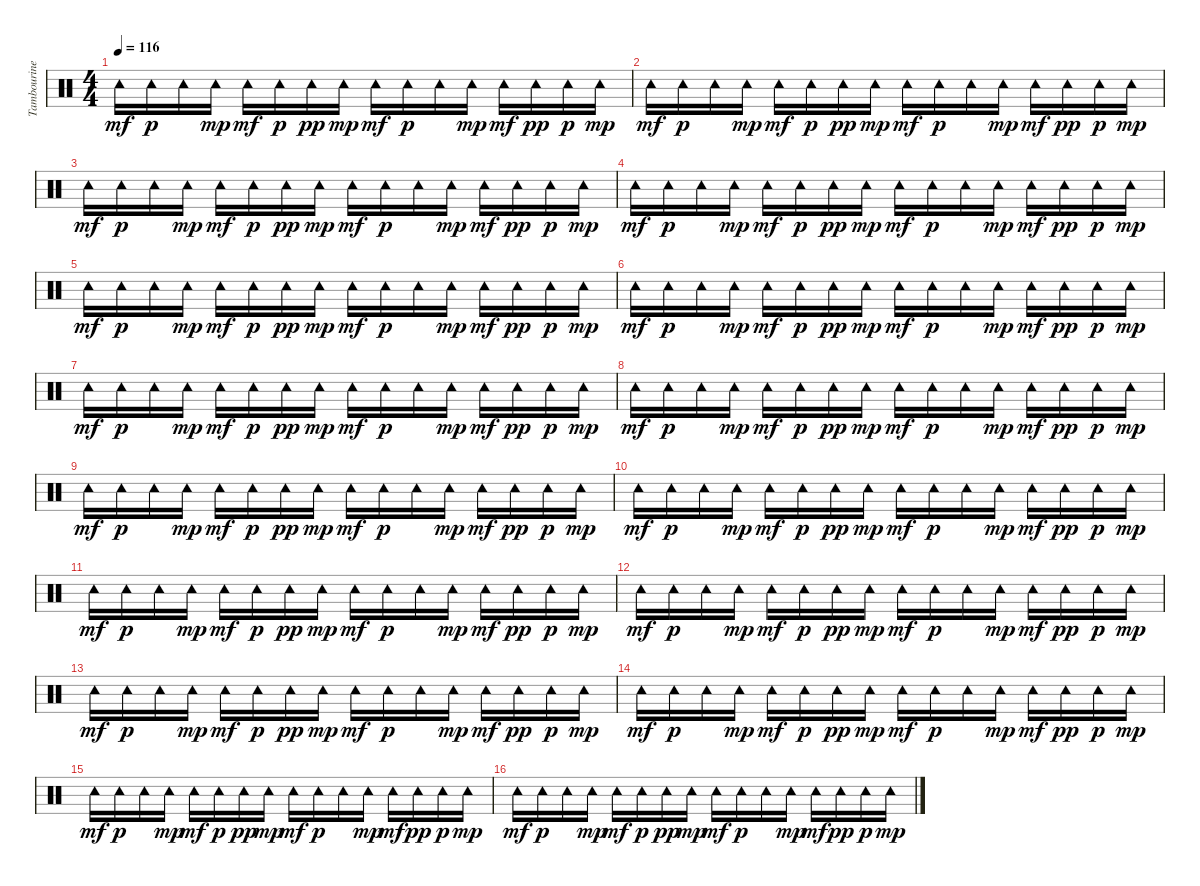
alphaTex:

\track ("Tambourine" "Tambourine") {instrument percussion}
\staff {score}
\articulation defaults
\ts (4 4)
\tempo 116
\clef neutral
\ks c "Tambourine (hit)".16{dy mf} "Tambourine (hit)".16{dy p} "Tambourine (hit)".16 "Tambourine (hit)".16{dy mp} "Tambourine (hit)".16{dy mf} "Tambourine (hit)".16{dy p} "Tambourine (hit)".16{dy pp} "Tambourine (hit)".16{dy mp} "Tambourine (hit)".16{dy mf} "Tambourine (hit)".16{dy p} "Tambourine (hit)".16 "Tambourine (hit)".16{dy mp} "Tambourine (hit)".16{dy mf} "Tambourine (hit)".16{dy pp} "Tambourine (hit)".16{dy p} "Tambourine (hit)".16{dy mp}
|
"Tambourine (hit)".16{dy mf} "Tambourine (hit)".16{dy p} "Tambourine (hit)".16 "Tambourine (hit)".16{dy mp} "Tambourine (hit)".16{dy mf} "Tambourine (hit)".16{dy p} "Tambourine (hit)".16{dy pp} "Tambourine (hit)".16{dy mp} "Tambourine (hit)".16{dy mf} "Tambourine (hit)".16{dy p} "Tambourine (hit)".16 "Tambourine (hit)".16{dy mp} "Tambourine (hit)".16{dy mf} "Tambourine (hit)".16{dy pp} "Tambourine (hit)".16{dy p} "Tambourine (hit)".16{dy mp} |
"Tambourine (hit)".16{dy mf} "Tambourine (hit)".16{dy p} "Tambourine (hit)".16 "Tambourine (hit)".16{dy mp} "Tambourine (hit)".16{dy mf} "Tambourine (hit)".16{dy p} "Tambourine (hit)".16{dy pp} "Tambourine (hit)".16{dy mp} "Tambourine (hit)".16{dy mf} "Tambourine (hit)".16{dy p} "Tambourine (hit)".16 "Tambourine (hit)".16{dy mp} "Tambourine (hit)".16{dy mf} "Tambourine (hit)".16{dy pp} "Tambourine (hit)".16{dy p} "Tambourine (hit)".16{dy mp} |
"Tambourine (hit)".16{dy mf} "Tambourine (hit)".16{dy p} "Tambourine (hit)".16 "Tambourine (hit)".16{dy mp} "Tambourine (hit)".16{dy mf} "Tambourine (hit)".16{dy p} "Tambourine (hit)".16{dy pp} "Tambourine (hit)".16{dy mp} "Tambourine (hit)".16{dy mf} "Tambourine (hit)".16{dy p} "Tambourine (hit)".16 "Tambourine (hit)".16{dy mp} "Tambourine (hit)".16{dy mf} "Tambourine (hit)".16{dy pp} "Tambourine (hit)".16{dy p} "Tambourine (hit)".16{dy mp} |
"Tambourine (hit)".16{dy mf} "Tambourine (hit)".16{dy p} "Tambourine (hit)".16 "Tambourine (hit)".16{dy mp} "Tambourine (hit)".16{dy mf} "Tambourine (hit)".16{dy p} "Tambourine (hit)".16{dy pp} "Tambourine (hit)".16{dy mp} "Tambourine (hit)".16{dy mf} "Tambourine (hit)".16{dy p} "Tambourine (hit)".16 "Tambourine (hit)".16{dy mp} "Tambourine (hit)".16{dy mf} "Tambourine (hit)".16{dy pp} "Tambourine (hit)".16{dy p} "Tambourine (hit)".16{dy mp} |
"Tambourine (hit)".16{dy mf} "Tambourine (hit)".16{dy p} "Tambourine (hit)".16 "Tambourine (hit)".16{dy mp} "Tambourine (hit)".16{dy mf} "Tambourine (hit)".16{dy p} "Tambourine (hit)".16{dy pp} "Tambourine (hit)".16{dy mp} "Tambourine (hit)".16{dy mf} "Tambourine (hit)".16{dy p} "Tambourine (hit)".16 "Tambourine (hit)".16{dy mp} "Tambourine (hit)".16{dy mf} "Tambourine (hit)".16{dy pp} "Tambourine (hit)".16{dy p} "Tambourine (hit)".16{dy mp} |
"Tambourine (hit)".16{dy mf} "Tambourine (hit)".16{dy p} "Tambourine (hit)".16 "Tambourine (hit)".16{dy mp} "Tambourine (hit)".16{dy mf} "Tambourine (hit)".16{dy p} "Tambourine (hit)".16{dy pp} "Tambourine (hit)".16{dy mp} "Tambourine (hit)".16{dy mf} "Tambourine (hit)".16{dy p} "Tambourine (hit)".16 "Tambourine (hit)".16{dy mp} "Tambourine (hit)".16{dy mf} "Tambourine (hit)".16{dy pp} "Tambourine (hit)".16{dy p} "Tambourine (hit)".16{dy mp} |
"Tambourine (hit)".16{dy mf} "Tambourine (hit)".16{dy p} "Tambourine (hit)".16 "Tambourine (hit)".16{dy mp} "Tambourine (hit)".16{dy mf} "Tambourine (hit)".16{dy p} "Tambourine (hit)".16{dy pp} "Tambourine (hit)".16{dy mp} "Tambourine (hit)".16{dy mf} "Tambourine (hit)".16{dy p} "Tambourine (hit)".16 "Tambourine (hit)".16{dy mp} "Tambourine (hit)".16{dy mf} "Tambourine (hit)".16{dy pp} "Tambourine (hit)".16{dy p} "Tambourine (hit)".16{dy mp} |
"Tambourine (hit)".16{dy mf} "Tambourine (hit)".16{dy p} "Tambourine (hit)".16 "Tambourine (hit)".16{dy mp} "Tambourine (hit)".16{dy mf} "Tambourine (hit)".16{dy p} "Tambourine (hit)".16{dy pp} "Tambourine (hit)".16{dy mp} "Tambourine (hit)".16{dy mf} "Tambourine (hit)".16{dy p} "Tambourine (hit)".16 "Tambourine (hit)".16{dy mp} "Tambourine (hit)".16{dy mf} "Tambourine (hit)".16{dy pp} "Tambourine (hit)".16{dy p} "Tambourine (hit)".16{dy mp} |
"Tambourine (hit)".16{dy mf} "Tambourine (hit)".16{dy p} "Tambourine (hit)".16 "Tambourine (hit)".16{dy mp} "Tambourine (hit)".16{dy mf} "Tambourine (hit)".16{dy p} "Tambourine (hit)".16{dy pp} "Tambourine (hit)".16{dy mp} "Tambourine (hit)".16{dy mf} "Tambourine (hit)".16{dy p} "Tambourine (hit)".16 "Tambourine (hit)".16{dy mp} "Tambourine (hit)".16{dy mf} "Tambourine (hit)".16{dy pp} "Tambourine (hit)".16{dy p} "Tambourine (hit)".16{dy mp} |
"Tambourine (hit)".16{dy mf} "Tambourine (hit)".16{dy p} "Tambourine (hit)".16 "Tambourine (hit)".16{dy mp} "Tambourine (hit)".16{dy mf} "Tambourine (hit)".16{dy p} "Tambourine (hit)".16{dy pp} "Tambourine (hit)".16{dy mp} "Tambourine (hit)".16{dy mf} "Tambourine (hit)".16{dy p} "Tambourine (hit)".16 "Tambourine (hit)".16{dy mp} "Tambourine (hit)".16{dy mf} "Tambourine (hit)".16{dy pp} "Tambourine (hit)".16{dy p} "Tambourine (hit)".16{dy mp} |
"Tambourine (hit)".16{dy mf} "Tambourine (hit)".16{dy p} "Tambourine (hit)".16 "Tambourine (hit)".16{dy mp} "Tambourine (hit)".16{dy mf} "Tambourine (hit)".16{dy p} "Tambourine (hit)".16{dy pp} "Tambourine (hit)".16{dy mp} "Tambourine (hit)".16{dy mf} "Tambourine (hit)".16{dy p} "Tambourine (hit)".16 "Tambourine (hit)".16{dy mp} "Tambourine (hit)".16{dy mf} "Tambourine (hit)".16{dy pp} "Tambourine (hit)".16{dy p} "Tambourine (hit)".16{dy mp} |
"Tambourine (hit)".16{dy mf} "Tambourine (hit)".16{dy p} "Tambourine (hit)".16 "Tambourine (hit)".16{dy mp} "Tambourine (hit)".16{dy mf} "Tambourine (hit)".16{dy p} "Tambourine (hit)".16{dy pp} "Tambourine (hit)".16{dy mp} "Tambourine (hit)".16{dy mf} "Tambourine (hit)".16{dy p} "Tambourine (hit)".16 "Tambourine (hit)".16{dy mp} "Tambourine (hit)".16{dy mf} "Tambourine (hit)".16{dy pp} "Tambourine (hit)".16{dy p} "Tambourine (hit)".16{dy mp} |
"Tambourine (hit)".16{dy mf} "Tambourine (hit)".16{dy p} "Tambourine (hit)".16 "Tambourine (hit)".16{dy mp} "Tambourine (hit)".16{dy mf} "Tambourine (hit)".16{dy p} "Tambourine (hit)".16{dy pp} "Tambourine (hit)".16{dy mp} "Tambourine (hit)".16{dy mf} "Tambourine (hit)".16{dy p} "Tambourine (hit)".16 "Tambourine (hit)".16{dy mp} "Tambourine (hit)".16{dy mf} "Tambourine (hit)".16{dy pp} "Tambourine (hit)".16{dy p} "Tambourine (hit)".16{dy mp} |
"Tambourine (hit)".16{dy mf} "Tambourine (hit)".16{dy p} "Tambourine (hit)".16 "Tambourine (hit)".16{dy mp} "Tambourine (hit)".16{dy mf} "Tambourine (hit)".16{dy p} "Tambourine (hit)".16{dy pp} "Tambourine (hit)".16{dy mp} "Tambourine (hit)".16{dy mf} "Tambourine (hit)".16{dy p} "Tambourine (hit)".16 "Tambourine (hit)".16{dy mp} "Tambourine (hit)".16{dy mf} "Tambourine (hit)".16{dy pp} "Tambourine (hit)".16{dy p} "Tambourine (hit)".16{dy mp} |
"Tambourine (hit)".16{dy mf} "Tambourine (hit)".16{dy p} "Tambourine (hit)".16 "Tambourine (hit)".16{dy mp} "Tambourine (hit)".16{dy mf} "Tambourine (hit)".16{dy p} "Tambourine (hit)".16{dy pp} "Tambourine (hit)".16{dy mp} "Tambourine (hit)".16{dy mf} "Tambourine (hit)".16{dy p} "Tambourine (hit)".16 "Tambourine (hit)".16{dy mp} "Tambourine (hit)".16{dy mf} "Tambourine (hit)".16{dy pp} "Tambourine (hit)".16{dy p} "Tambourine (hit)".16{dy mp}
